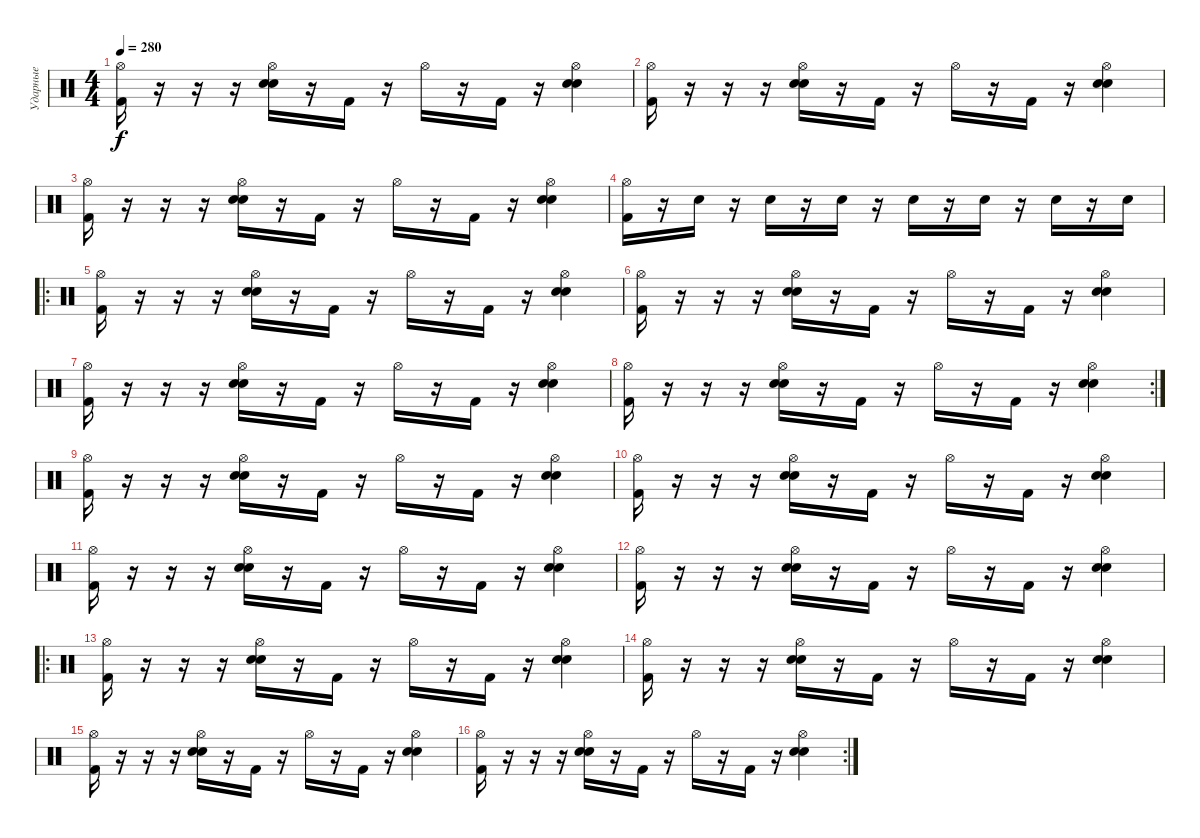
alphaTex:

\track ("Ударные" "Ударные") {instrument percussion}
\staff {score}
\articulation defaults
\ts (4 4)
\tempo 280
\clef neutral
\ks c
("Hi-Hat (open)" "Kick (hit) 2").16{dy f} r.16 r.16 r.16 ("Hi-Hat (open)" "Electric Snare (hit)" "Snare (hit) 2").16 r.16 "Kick (hit) 2".16 r.16 "Hi-Hat (open)".16 r.16 "Kick (hit) 2".16 r.16 ("Hi-Hat (open)" "Electric Snare (hit)" "Snare (hit) 2").4 |
("Hi-Hat (open)" "Kick (hit) 2").16 r.16 r.16 r.16 ("Hi-Hat (open)" "Electric Snare (hit)" "Snare (hit) 2").16 r.16 "Kick (hit) 2".16 r.16 "Hi-Hat (open)".16 r.16 "Kick (hit) 2".16 r.16 ("Hi-Hat (open)" "Electric Snare (hit)" "Snare (hit) 2").4 |
("Hi-Hat (open)" "Kick (hit) 2").16 r.16 r.16 r.16 ("Hi-Hat (open)" "Electric Snare (hit)" "Snare (hit) 2").16 r.16 "Kick (hit) 2".16 r.16 "Hi-Hat (open)".16 r.16 "Kick (hit) 2".16 r.16 ("Hi-Hat (open)" "Electric Snare (hit)" "Snare (hit) 2").4 |
("Hi-Hat (open)" "Kick (hit) 2").16 r.16 "Electric Snare (hit)".16 r.16 "Electric Snare (hit)".16 r.16 "Electric Snare (hit)".16 r.16 "Electric Snare (hit)".16 r.16 "Electric Snare (hit)".16 r.16 "Electric Snare (hit)".16 r.16 "Electric Snare (hit)".16 |
\ro
("Hi-Hat (open)" "Kick (hit) 2").16 r.16 r.16 r.16 ("Hi-Hat (open)" "Electric Snare (hit)" "Snare (hit) 2").16 r.16 "Kick (hit) 2".16 r.16 "Hi-Hat (open)".16 r.16 "Kick (hit) 2".16 r.16 ("Hi-Hat (open)" "Electric Snare (hit)" "Snare (hit) 2").4 |
("Hi-Hat (open)" "Kick (hit) 2").16 r.16 r.16 r.16 ("Hi-Hat (open)" "Electric Snare (hit)" "Snare (hit) 2").16 r.16 "Kick (hit) 2".16 r.16 "Hi-Hat (open)".16 r.16 "Kick (hit) 2".16 r.16 ("Hi-Hat (open)" "Electric Snare (hit)" "Snare (hit) 2").4 |
("Hi-Hat (open)" "Kick (hit) 2").16 r.16 r.16 r.16 ("Hi-Hat (open)" "Electric Snare (hit)" "Snare (hit) 2").16 r.16 "Kick (hit) 2".16 r.16 "Hi-Hat (open)".16 r.16 "Kick (hit) 2".16 r.16 ("Hi-Hat (open)" "Electric Snare (hit)" "Snare (hit) 2").4 |
\rc 2
("Hi-Hat (open)" "Kick (hit) 2").16 r.16 r.16 r.16 ("Hi-Hat (open)" "Electric Snare (hit)" "Snare (hit) 2").16 r.16 "Kick (hit) 2".16 r.16 "Hi-Hat (open)".16 r.16 "Kick (hit) 2".16 r.16 ("Hi-Hat (open)" "Electric Snare (hit)" "Snare (hit) 2").4 |
("Hi-Hat (open)" "Kick (hit) 2").16 r.16 r.16 r.16 ("Hi-Hat (open)" "Electric Snare (hit)" "Snare (hit) 2").16 r.16 "Kick (hit) 2".16 r.16 "Hi-Hat (open)".16 r.16 "Kick (hit) 2".16 r.16 ("Hi-Hat (open)" "Electric Snare (hit)" "Snare (hit) 2").4 |
("Hi-Hat (open)" "Kick (hit) 2").16 r.16 r.16 r.16 ("Hi-Hat (open)" "Electric Snare (hit)" "Snare (hit) 2").16 r.16 "Kick (hit) 2".16 r.16 "Hi-Hat (open)".16 r.16 "Kick (hit) 2".16 r.16 ("Hi-Hat (open)" "Electric Snare (hit)" "Snare (hit) 2").4 |
("Hi-Hat (open)" "Kick (hit) 2").16 r.16 r.16 r.16 ("Hi-Hat (open)" "Electric Snare (hit)" "Snare (hit) 2").16 r.16 "Kick (hit) 2".16 r.16 "Hi-Hat (open)".16 r.16 "Kick (hit) 2".16 r.16 ("Hi-Hat (open)" "Electric Snare (hit)" "Snare (hit) 2").4 |
("Hi-Hat (open)" "Kick (hit) 2").16 r.16 r.16 r.16 ("Hi-Hat (open)" "Electric Snare (hit)" "Snare (hit) 2").16 r.16 "Kick (hit) 2".16 r.16 "Hi-Hat (open)".16 r.16 "Kick (hit) 2".16 r.16 ("Hi-Hat (open)" "Electric Snare (hit)" "Snare (hit) 2").4 |
\ro
("Hi-Hat (open)" "Kick (hit) 2").16 r.16 r.16 r.16 ("Hi-Hat (open)" "Electric Snare (hit)" "Snare (hit) 2").16 r.16 "Kick (hit) 2".16 r.16 "Hi-Hat (open)".16 r.16 "Kick (hit) 2".16 r.16 ("Hi-Hat (open)" "Electric Snare (hit)" "Snare (hit) 2").4 |
("Hi-Hat (open)" "Kick (hit) 2").16 r.16 r.16 r.16 ("Hi-Hat (open)" "Electric Snare (hit)" "Snare (hit) 2").16 r.16 "Kick (hit) 2".16 r.16 "Hi-Hat (open)".16 r.16 "Kick (hit) 2".16 r.16 ("Hi-Hat (open)" "Electric Snare (hit)" "Snare (hit) 2").4 |
("Hi-Hat (open)" "Kick (hit) 2").16 r.16 r.16 r.16 ("Hi-Hat (open)" "Electric Snare (hit)" "Snare (hit) 2").16 r.16 "Kick (hit) 2".16 r.16 "Hi-Hat (open)".16 r.16 "Kick (hit) 2".16 r.16 ("Hi-Hat (open)" "Electric Snare (hit)" "Snare (hit) 2").4 |
\rc 2
("Hi-Hat (open)" "Kick (hit) 2").16 r.16 r.16 r.16 ("Hi-Hat (open)" "Electric Snare (hit)" "Snare (hit) 2").16 r.16 "Kick (hit) 2".16 r.16 "Hi-Hat (open)".16 r.16 "Kick (hit) 2".16 r.16 ("Hi-Hat (open)" "Electric Snare (hit)" "Snare (hit) 2").4
